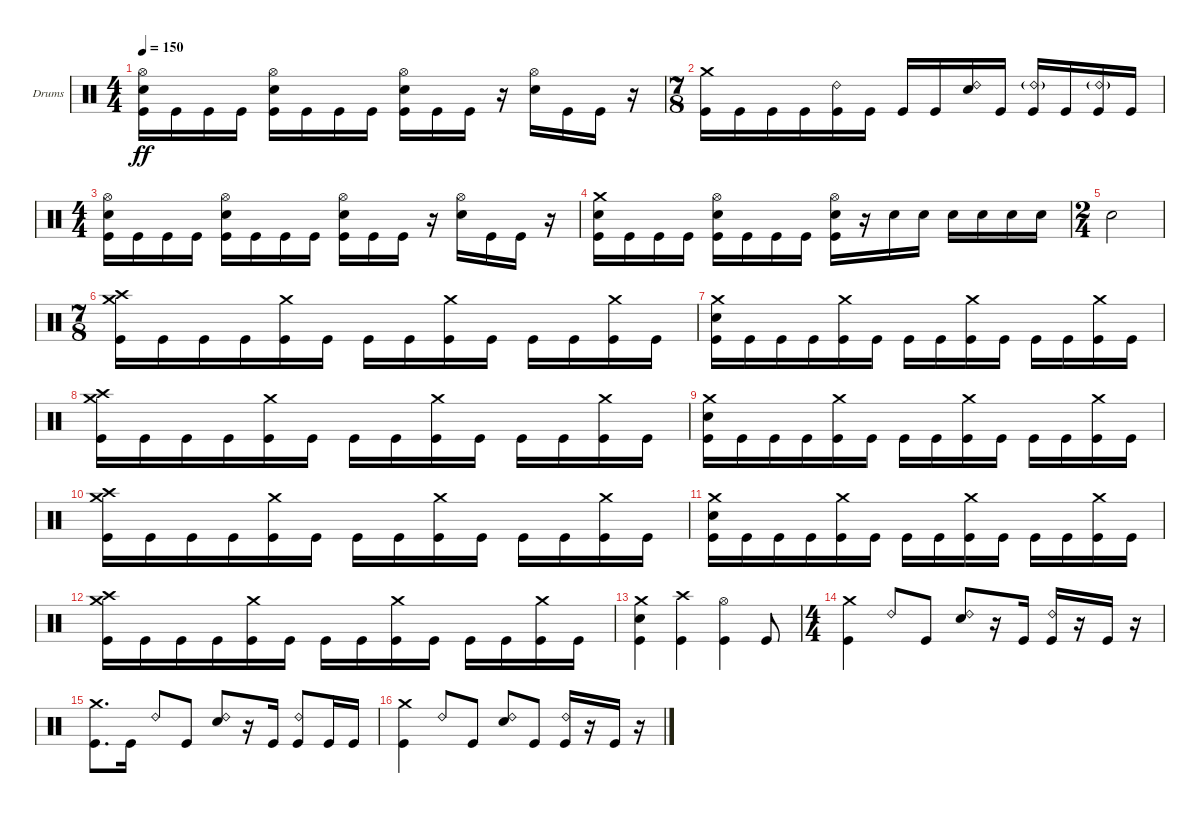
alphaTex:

\bracketExtendMode groupsimilarinstruments
\firstSystemTrackNameOrientation horizontal
\otherSystemsTrackNameOrientation horizontal
\track ("Drumkit" "Drums") {instrument percussion}
\staff {score}
\articulation defaults
\ts (4 4)
\tempo 150
\clef neutral
\ks c
("Hi-Hat (open)" "Snare (hit) 2" "Kick (hit)").16{dy ff} "Kick (hit)".16 "Kick (hit)".16 "Kick (hit)".16 ("Hi-Hat (open)" "Snare (hit) 2" "Kick (hit)").16 "Kick (hit)".16 "Kick (hit)".16 "Kick (hit)".16 ("Hi-Hat (open)" "Snare (hit) 2" "Kick (hit)").16 "Kick (hit)".16 "Kick (hit)".16 r.16 ("Hi-Hat (open)" "Snare (hit) 2").16 "Kick (hit)".16 "Kick (hit)".16 r.16 |
\ts (7 8)
\beaming (8 3 2 2)
("Crash medium (hit)" "Kick (hit)").16 "Kick (hit)".16 "Kick (hit)".16 "Kick (hit)".16 ("Ride (bell) 2" "Kick (hit)").16 "Kick (hit)".16 "Kick (hit)".16 "Kick (hit)".16 ("Ride (bell) 2" "Snare (hit) 2").16 "Kick (hit)".16 ("Ride (bell) 2"{g} "Kick (hit)").16 "Kick (hit)".16 ("Ride (bell) 2"{g} "Kick (hit)").16 "Kick (hit)".16 |
\ts (4 4)
\beaming (8 2 2 2 2)
("Hi-Hat (open)" "Snare (hit) 2" "Kick (hit)").16 "Kick (hit)".16 "Kick (hit)".16 "Kick (hit)".16 ("Hi-Hat (open)" "Snare (hit) 2" "Kick (hit)").16 "Kick (hit)".16 "Kick (hit)".16 "Kick (hit)".16 ("Hi-Hat (open)" "Snare (hit) 2" "Kick (hit)").16 "Kick (hit)".16 "Kick (hit)".16 r.16 ("Hi-Hat (open)" "Snare (hit) 2").16 "Kick (hit)".16 "Kick (hit)".16 r.16 |
("Crash medium (hit)" "Snare (hit) 2" "Kick (hit)").16 "Kick (hit)".16 "Kick (hit)".16 "Kick (hit)".16 ("Hi-Hat (open)" "Snare (hit) 2" "Kick (hit)").16 "Kick (hit)".16 "Kick (hit)".16 "Kick (hit)".16 ("Hi-Hat (open)" "Snare (hit) 2" "Kick (hit)").16 r.16 "Snare (hit) 2".16 "Snare (hit) 2".16 "Snare (hit) 2".16 "Snare (hit) 2".16 "Snare (hit) 2".16 "Snare (hit) 2".16 |
\ts (2 4)
\beaming (8 2 2)
"Snare (hit) 2".2 |
\ts (7 8)
\beaming (8 3 2 2)
("Crash medium (hit)" "Crash high (hit)" "Kick (hit)").16 "Kick (hit)".16 "Kick (hit)".16 "Kick (hit)".16 ("Crash medium (hit)" "Kick (hit)").16 "Kick (hit)".16 "Kick (hit)".16 "Kick (hit)".16 ("Crash medium (hit)" "Kick (hit)").16 "Kick (hit)".16 "Kick (hit)".16 "Kick (hit)".16 ("Crash medium (hit)" "Kick (hit)").16 "Kick (hit)".16 |
("Crash medium (hit)" "Snare (hit) 2" "Kick (hit)").16 "Kick (hit)".16 "Kick (hit)".16 "Kick (hit)".16 ("Crash medium (hit)" "Kick (hit)").16 "Kick (hit)".16 "Kick (hit)".16 "Kick (hit)".16 ("Crash medium (hit)" "Kick (hit)").16 "Kick (hit)".16 "Kick (hit)".16 "Kick (hit)".16 ("Crash medium (hit)" "Kick (hit)").16 "Kick (hit)".16 |
("Crash medium (hit)" "Crash high (hit)" "Kick (hit)").16 "Kick (hit)".16 "Kick (hit)".16 "Kick (hit)".16 ("Crash medium (hit)" "Kick (hit)").16 "Kick (hit)".16 "Kick (hit)".16 "Kick (hit)".16 ("Crash medium (hit)" "Kick (hit)").16 "Kick (hit)".16 "Kick (hit)".16 "Kick (hit)".16 ("Crash medium (hit)" "Kick (hit)").16 "Kick (hit)".16 |
("Crash medium (hit)" "Snare (hit) 2" "Kick (hit)").16 "Kick (hit)".16 "Kick (hit)".16 "Kick (hit)".16 ("Crash medium (hit)" "Kick (hit)").16 "Kick (hit)".16 "Kick (hit)".16 "Kick (hit)".16 ("Crash medium (hit)" "Kick (hit)").16 "Kick (hit)".16 "Kick (hit)".16 "Kick (hit)".16 ("Crash medium (hit)" "Kick (hit)").16 "Kick (hit)".16 |
("Crash medium (hit)" "Crash high (hit)" "Kick (hit)").16 "Kick (hit)".16 "Kick (hit)".16 "Kick (hit)".16 ("Crash medium (hit)" "Kick (hit)").16 "Kick (hit)".16 "Kick (hit)".16 "Kick (hit)".16 ("Crash medium (hit)" "Kick (hit)").16 "Kick (hit)".16 "Kick (hit)".16 "Kick (hit)".16 ("Crash medium (hit)" "Kick (hit)").16 "Kick (hit)".16 |
("Crash medium (hit)" "Snare (hit) 2" "Kick (hit)").16 "Kick (hit)".16 "Kick (hit)".16 "Kick (hit)".16 ("Crash medium (hit)" "Kick (hit)").16 "Kick (hit)".16 "Kick (hit)".16 "Kick (hit)".16 ("Crash medium (hit)" "Kick (hit)").16 "Kick (hit)".16 "Kick (hit)".16 "Kick (hit)".16 ("Crash medium (hit)" "Kick (hit)").16 "Kick (hit)".16 |
("Crash medium (hit)" "Crash high (hit)" "Kick (hit)").16 "Kick (hit)".16 "Kick (hit)".16 "Kick (hit)".16 ("Crash medium (hit)" "Kick (hit)").16 "Kick (hit)".16 "Kick (hit)".16 "Kick (hit)".16 ("Crash medium (hit)" "Kick (hit)").16 "Kick (hit)".16 "Kick (hit)".16 "Kick (hit)".16 ("Crash medium (hit)" "Kick (hit)").16 "Kick (hit)".16 |
("Crash medium (hit)" "Snare (hit) 2" "Kick (hit)").4 ("Crash high (hit)" "Kick (hit)").4 ("Hi-Hat (open)" "Kick (hit)").4 "Kick (hit)".8 |
\ts (4 4)
\beaming (8 2 2 2 2)
("Crash medium (hit)" "Kick (hit)").4 "Ride (bell) 2".8 "Kick (hit)".8 ("Ride (bell) 2" "Snare (hit) 2").8 r.16 "Kick (hit)".16 ("Ride (bell) 2" "Kick (hit)").16 r.16 "Kick (hit)".16 r.16 |
("Crash medium (hit)" "Kick (hit)").8{d} "Kick (hit)".16 "Ride (bell) 2".8 "Kick (hit)".8 ("Ride (bell) 2" "Snare (hit) 2").8 r.16 "Kick (hit)".16 ("Ride (bell) 2" "Kick (hit)").8 "Kick (hit)".16 "Kick (hit)".16 |
("Crash medium (hit)" "Kick (hit)").4 "Ride (bell) 2".8 "Kick (hit)".8 ("Ride (bell) 2" "Snare (hit) 2").8 "Kick (hit)".8 ("Ride (bell) 2" "Kick (hit)").16 r.16 "Kick (hit)".16 r.16
